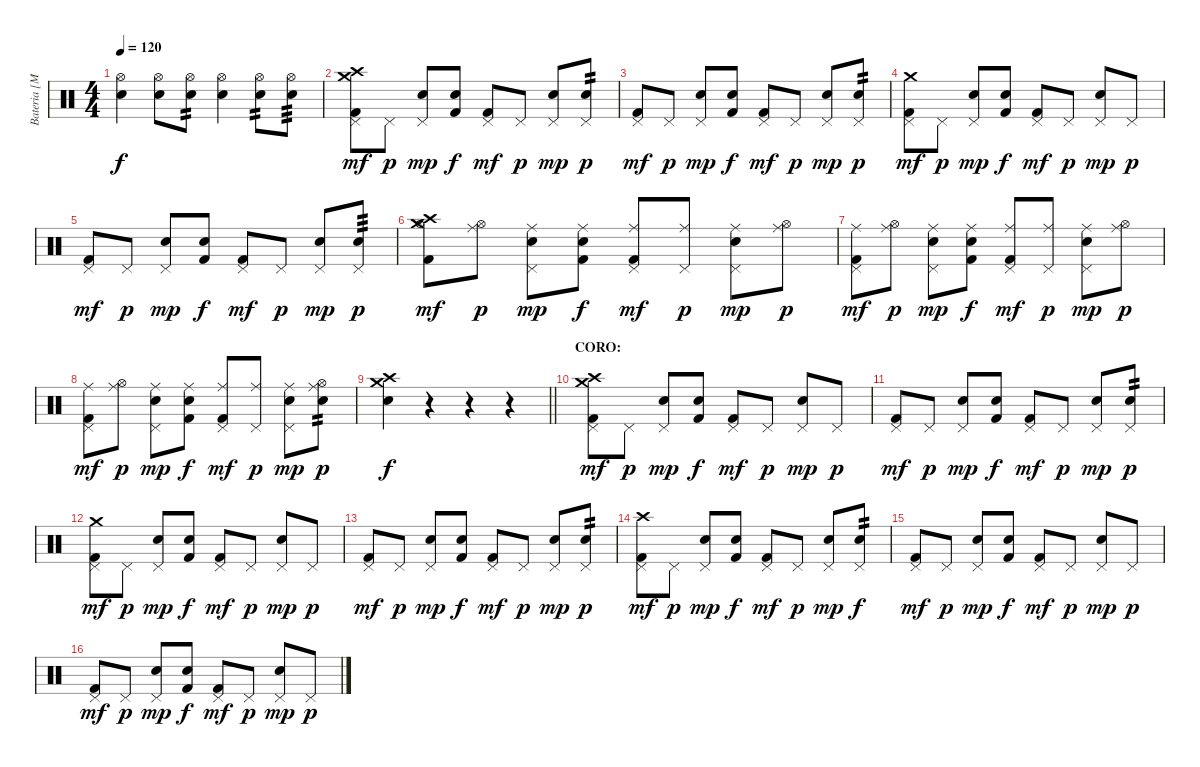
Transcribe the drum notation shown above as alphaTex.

\track ("Bateria [Mauricio Basualto]" "Bateria [M") {instrument percussion}
\staff {score}
\articulation defaults
\ts (4 4)
\tempo 120
\clef neutral
\ks c
("Electric Snare (hit)" "Hi-Hat (open)").4{dy f} ("Electric Snare (hit)" "Hi-Hat (open)").8 ("Electric Snare (hit)" "Hi-Hat (open)").8{tp 2} ("Electric Snare (hit)" "Hi-Hat (open)").4 ("Electric Snare (hit)" "Hi-Hat (open)").8{tp 2} ("Electric Snare (hit)" "Hi-Hat (open)").8{tp 3} |
("Kick (hit) 2" "Pedal Hi-Hat (hit)" "Crash medium (hit)" "Crash high (hit)").8{dy mf} "Pedal Hi-Hat (hit)".8{dy p} ("Electric Snare (hit)" "Pedal Hi-Hat (hit)").8{dy mp} ("Electric Snare (hit)" "Kick (hit) 2").8{dy f} ("Kick (hit) 2" "Pedal Hi-Hat (hit)").8{dy mf} "Pedal Hi-Hat (hit)".8{dy p} ("Electric Snare (hit)" "Pedal Hi-Hat (hit)").8{dy mp} ("Pedal Hi-Hat (hit)" "Electric Snare (hit)").8{tp 2 dy p} |
("Kick (hit) 2" "Pedal Hi-Hat (hit)").8{dy mf} "Pedal Hi-Hat (hit)".8{dy p} ("Electric Snare (hit)" "Pedal Hi-Hat (hit)").8{dy mp} ("Electric Snare (hit)" "Kick (hit) 2").8{dy f} ("Kick (hit) 2" "Pedal Hi-Hat (hit)").8{dy mf} "Pedal Hi-Hat (hit)".8{dy p} ("Electric Snare (hit)" "Pedal Hi-Hat (hit)").8{dy mp} ("Pedal Hi-Hat (hit)" "Electric Snare (hit)").8{tp 2 dy p} |
("Kick (hit) 2" "Pedal Hi-Hat (hit)" "Crash medium (hit)").8{dy mf} "Pedal Hi-Hat (hit)".8{dy p} ("Electric Snare (hit)" "Pedal Hi-Hat (hit)").8{dy mp} ("Electric Snare (hit)" "Kick (hit) 2").8{dy f} ("Kick (hit) 2" "Pedal Hi-Hat (hit)").8{dy mf} "Pedal Hi-Hat (hit)".8{dy p} ("Electric Snare (hit)" "Pedal Hi-Hat (hit)").8{dy mp} "Pedal Hi-Hat (hit)".8{dy p} |
("Kick (hit) 2" "Pedal Hi-Hat (hit)").8{dy mf} "Pedal Hi-Hat (hit)".8{dy p} ("Electric Snare (hit)" "Pedal Hi-Hat (hit)").8{dy mp} ("Electric Snare (hit)" "Kick (hit) 2").8{dy f} ("Kick (hit) 2" "Pedal Hi-Hat (hit)").8{dy mf} "Pedal Hi-Hat (hit)".8{dy p} ("Electric Snare (hit)" "Pedal Hi-Hat (hit)").8{dy mp} ("Pedal Hi-Hat (hit)" "Electric Snare (hit)").8{tp 3 dy p} |
("Kick (hit) 2" "Hi-Hat (open)" "Crash medium (hit)" "Crash high (hit)").8{dy mf} ("Hi-Hat (open)" "Ride (middle)").8{dy p} ("Electric Snare (hit)" "Pedal Hi-Hat (hit)" "Ride (middle)").8{dy mp} ("Electric Snare (hit)" "Kick (hit) 2" "Ride (middle)").8{dy f} ("Kick (hit) 2" "Pedal Hi-Hat (hit)" "Ride (middle)").8{dy mf} ("Pedal Hi-Hat (hit)" "Ride (middle)").8{dy p} ("Electric Snare (hit)" "Pedal Hi-Hat (hit)" "Ride (middle)").8{dy mp} ("Hi-Hat (open)" "Ride (middle)").8{dy p} |
("Kick (hit) 2" "Pedal Hi-Hat (hit)" "Ride (middle)").8{dy mf} ("Hi-Hat (open)" "Ride (middle)").8{dy p} ("Electric Snare (hit)" "Pedal Hi-Hat (hit)" "Ride (middle)").8{dy mp} ("Electric Snare (hit)" "Kick (hit) 2" "Ride (middle)").8{dy f} ("Kick (hit) 2" "Pedal Hi-Hat (hit)" "Ride (middle)").8{dy mf} ("Pedal Hi-Hat (hit)" "Ride (middle)").8{dy p} ("Electric Snare (hit)" "Pedal Hi-Hat (hit)" "Ride (middle)").8{dy mp} ("Hi-Hat (open)" "Ride (middle)").8{dy p} |
("Kick (hit) 2" "Pedal Hi-Hat (hit)" "Ride (middle)").8{dy mf} ("Hi-Hat (open)" "Ride (middle)").8{dy p} ("Electric Snare (hit)" "Pedal Hi-Hat (hit)" "Ride (middle)").8{dy mp} ("Electric Snare (hit)" "Kick (hit) 2" "Ride (middle)").8{dy f} ("Kick (hit) 2" "Pedal Hi-Hat (hit)" "Ride (middle)").8{dy mf} ("Pedal Hi-Hat (hit)" "Ride (middle)").8{dy p} ("Electric Snare (hit)" "Pedal Hi-Hat (hit)" "Ride (middle)").8{dy mp} ("Hi-Hat (open)" "Electric Snare (hit)" "Ride (middle)").8{tp 2 dy p} |
\barLineRight lightlight
("Electric Snare (hit)" "Crash medium (hit)" "Crash high (hit)").4{dy f} r.4 r.4 r.4 |
\section ("" "CORO:")
("Kick (hit) 2" "Pedal Hi-Hat (hit)" "Crash medium (hit)" "Crash high (hit)").8{dy mf} "Pedal Hi-Hat (hit)".8{dy p} ("Electric Snare (hit)" "Pedal Hi-Hat (hit)").8{dy mp} ("Electric Snare (hit)" "Kick (hit) 2").8{dy f} ("Kick (hit) 2" "Pedal Hi-Hat (hit)").8{dy mf} "Pedal Hi-Hat (hit)".8{dy p} ("Electric Snare (hit)" "Pedal Hi-Hat (hit)").8{dy mp} "Pedal Hi-Hat (hit)".8{dy p} |
("Kick (hit) 2" "Pedal Hi-Hat (hit)").8{dy mf} "Pedal Hi-Hat (hit)".8{dy p} ("Electric Snare (hit)" "Pedal Hi-Hat (hit)").8{dy mp} ("Electric Snare (hit)" "Kick (hit) 2").8{dy f} ("Kick (hit) 2" "Pedal Hi-Hat (hit)").8{dy mf} "Pedal Hi-Hat (hit)".8{dy p} ("Electric Snare (hit)" "Pedal Hi-Hat (hit)").8{dy mp} ("Pedal Hi-Hat (hit)" "Electric Snare (hit)").8{tp 2 dy p} |
("Kick (hit) 2" "Pedal Hi-Hat (hit)" "Crash medium (hit)").8{dy mf} "Pedal Hi-Hat (hit)".8{dy p} ("Electric Snare (hit)" "Pedal Hi-Hat (hit)").8{dy mp} ("Electric Snare (hit)" "Kick (hit) 2").8{dy f} ("Kick (hit) 2" "Pedal Hi-Hat (hit)").8{dy mf} "Pedal Hi-Hat (hit)".8{dy p} ("Electric Snare (hit)" "Pedal Hi-Hat (hit)").8{dy mp} "Pedal Hi-Hat (hit)".8{dy p} |
("Kick (hit) 2" "Pedal Hi-Hat (hit)").8{dy mf} "Pedal Hi-Hat (hit)".8{dy p} ("Electric Snare (hit)" "Pedal Hi-Hat (hit)").8{dy mp} ("Electric Snare (hit)" "Kick (hit) 2").8{dy f} ("Kick (hit) 2" "Pedal Hi-Hat (hit)").8{dy mf} "Pedal Hi-Hat (hit)".8{dy p} ("Electric Snare (hit)" "Pedal Hi-Hat (hit)").8{dy mp} ("Pedal Hi-Hat (hit)" "Electric Snare (hit)").8{tp 2 dy p} |
("Kick (hit) 2" "Pedal Hi-Hat (hit)" "Crash high (hit)").8{dy mf} "Pedal Hi-Hat (hit)".8{dy p} ("Electric Snare (hit)" "Pedal Hi-Hat (hit)").8{dy mp} ("Electric Snare (hit)" "Kick (hit) 2").8{dy f} ("Kick (hit) 2" "Pedal Hi-Hat (hit)").8{dy mf} "Pedal Hi-Hat (hit)".8{dy p} ("Electric Snare (hit)" "Pedal Hi-Hat (hit)").8{dy mp} ("Pedal Hi-Hat (hit)" "Electric Snare (hit)").8{tp 2 dy f} |
("Kick (hit) 2" "Pedal Hi-Hat (hit)").8{dy mf} "Pedal Hi-Hat (hit)".8{dy p} ("Electric Snare (hit)" "Pedal Hi-Hat (hit)").8{dy mp} ("Electric Snare (hit)" "Kick (hit) 2").8{dy f} ("Kick (hit) 2" "Pedal Hi-Hat (hit)").8{dy mf} "Pedal Hi-Hat (hit)".8{dy p} ("Electric Snare (hit)" "Pedal Hi-Hat (hit)").8{dy mp} "Pedal Hi-Hat (hit)".8{dy p} |
("Kick (hit) 2" "Pedal Hi-Hat (hit)").8{dy mf} "Pedal Hi-Hat (hit)".8{dy p} ("Electric Snare (hit)" "Pedal Hi-Hat (hit)").8{dy mp} ("Electric Snare (hit)" "Kick (hit) 2").8{dy f} ("Kick (hit) 2" "Pedal Hi-Hat (hit)").8{dy mf} "Pedal Hi-Hat (hit)".8{dy p} ("Electric Snare (hit)" "Pedal Hi-Hat (hit)").8{dy mp} "Pedal Hi-Hat (hit)".8{dy p}
